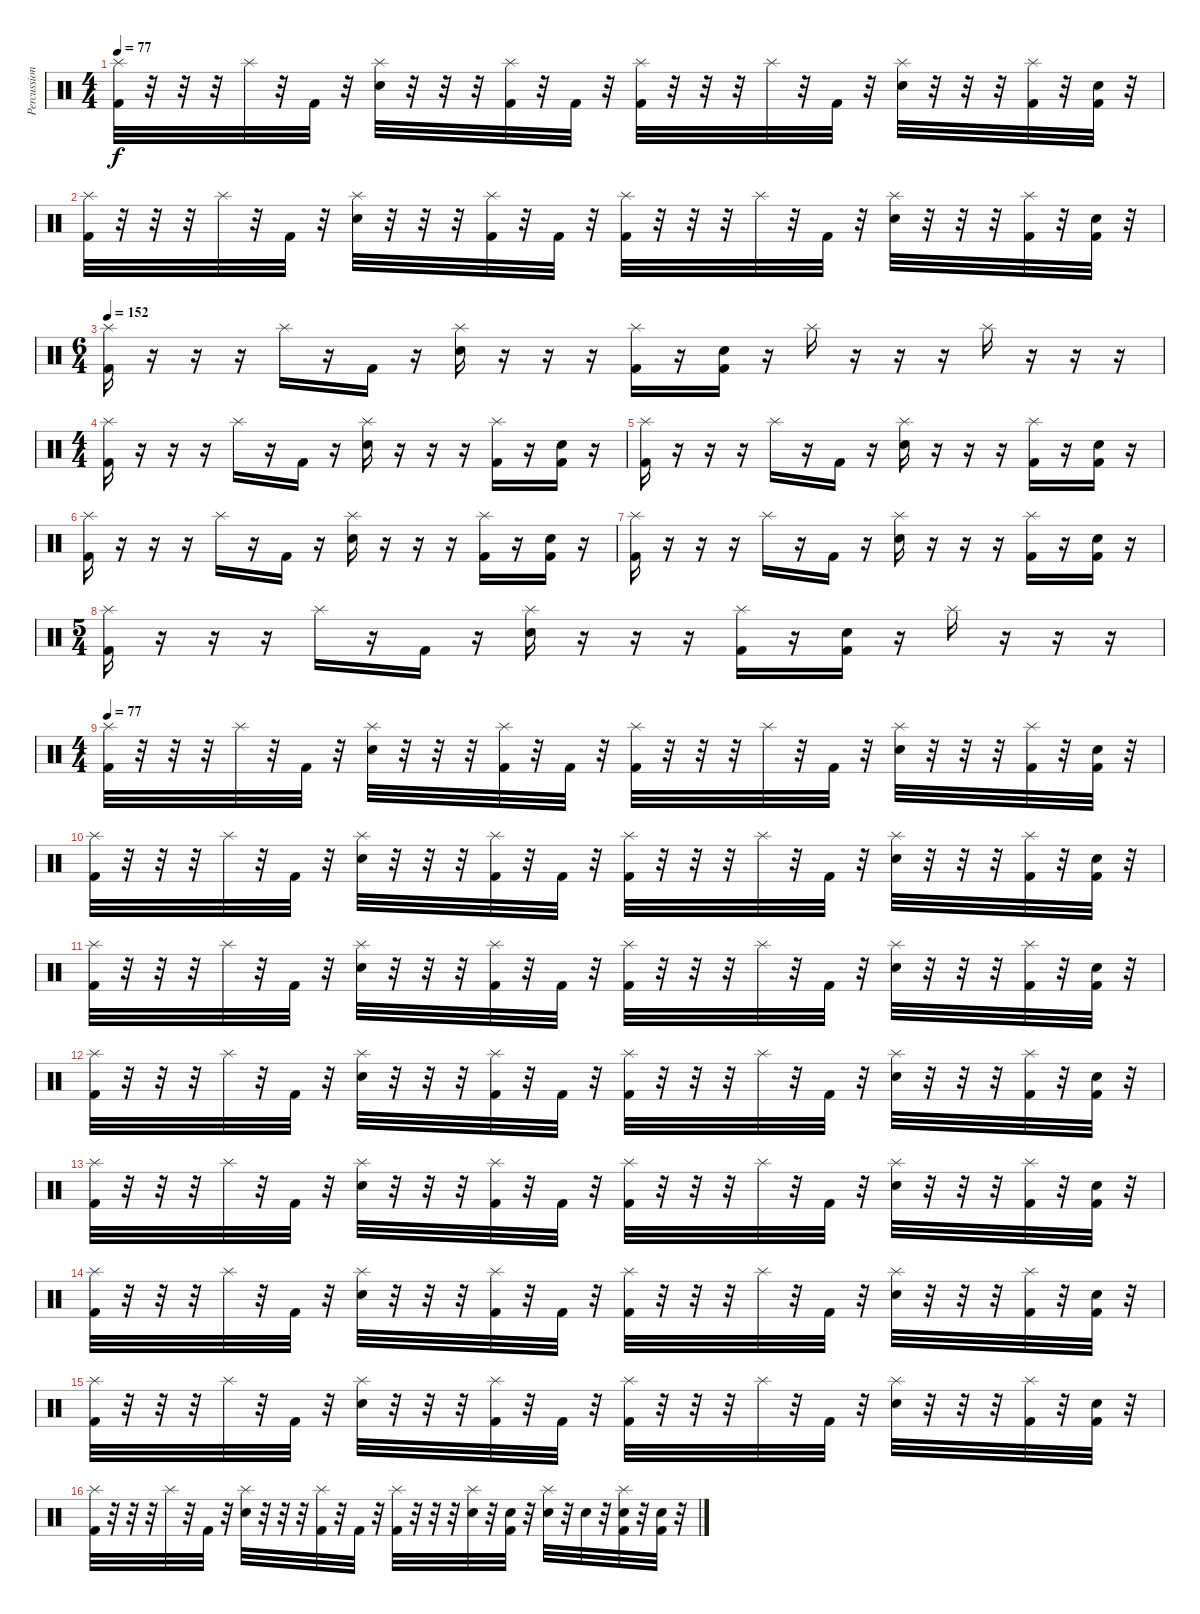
\track ("Percussion" "Percussion") {instrument percussion}
\staff {score}
\articulation defaults
\ts (4 4)
\tempo 77
\clef neutral
\ks c
("Splash (hit)" "Kick (hit) 2").32{dy f} r.32 r.32 r.32 "Splash (hit)".32 r.32 "Kick (hit) 2".32 r.32 ("Splash (hit)" "Electric Snare (hit)").32 r.32 r.32 r.32 ("Splash (hit)" "Kick (hit) 2").32 r.32 "Kick (hit) 2".32 r.32 ("Splash (hit)" "Kick (hit) 2").32 r.32 r.32 r.32 "Splash (hit)".32 r.32 "Kick (hit) 2".32 r.32 ("Splash (hit)" "Electric Snare (hit)").32 r.32 r.32 r.32 ("Splash (hit)" "Kick (hit) 2").32 r.32 ("Electric Snare (hit)" "Kick (hit) 2").32 r.32 |
("Splash (hit)" "Kick (hit) 2").32 r.32 r.32 r.32 "Splash (hit)".32 r.32 "Kick (hit) 2".32 r.32 ("Splash (hit)" "Electric Snare (hit)").32 r.32 r.32 r.32 ("Splash (hit)" "Kick (hit) 2").32 r.32 "Kick (hit) 2".32 r.32 ("Splash (hit)" "Kick (hit) 2").32 r.32 r.32 r.32 "Splash (hit)".32 r.32 "Kick (hit) 2".32 r.32 ("Splash (hit)" "Electric Snare (hit)").32 r.32 r.32 r.32 ("Splash (hit)" "Kick (hit) 2").32 r.32 ("Electric Snare (hit)" "Kick (hit) 2").32 r.32 |
\ts (6 4)
\tempo 152
("Splash (hit)" "Kick (hit) 2").16 r.16 r.16 r.16 "Splash (hit)".16 r.16 "Kick (hit) 2".16 r.16 ("Splash (hit)" "Electric Snare (hit)").16 r.16 r.16 r.16 ("Splash (hit)" "Kick (hit) 2").16 r.16 ("Electric Snare (hit)" "Kick (hit) 2").16 r.16 "Splash (hit)".16 r.16 r.16 r.16 "Splash (hit)".16 r.16 r.16 r.16 |
\ts (4 4)
("Splash (hit)" "Kick (hit) 2").16 r.16 r.16 r.16 "Splash (hit)".16 r.16 "Kick (hit) 2".16 r.16 ("Splash (hit)" "Electric Snare (hit)").16 r.16 r.16 r.16 ("Splash (hit)" "Kick (hit) 2").16 r.16 ("Electric Snare (hit)" "Kick (hit) 2").16 r.16 |
("Splash (hit)" "Kick (hit) 2").16 r.16 r.16 r.16 "Splash (hit)".16 r.16 "Kick (hit) 2".16 r.16 ("Splash (hit)" "Electric Snare (hit)").16 r.16 r.16 r.16 ("Splash (hit)" "Kick (hit) 2").16 r.16 ("Electric Snare (hit)" "Kick (hit) 2").16 r.16 |
("Splash (hit)" "Kick (hit) 2").16 r.16 r.16 r.16 "Splash (hit)".16 r.16 "Kick (hit) 2".16 r.16 ("Splash (hit)" "Electric Snare (hit)").16 r.16 r.16 r.16 ("Splash (hit)" "Kick (hit) 2").16 r.16 ("Electric Snare (hit)" "Kick (hit) 2").16 r.16 |
("Splash (hit)" "Kick (hit) 2").16 r.16 r.16 r.16 "Splash (hit)".16 r.16 "Kick (hit) 2".16 r.16 ("Splash (hit)" "Electric Snare (hit)").16 r.16 r.16 r.16 ("Splash (hit)" "Kick (hit) 2").16 r.16 ("Electric Snare (hit)" "Kick (hit) 2").16 r.16 |
\ts (5 4)
("Splash (hit)" "Kick (hit) 2").16 r.16 r.16 r.16 "Splash (hit)".16 r.16 "Kick (hit) 2".16 r.16 ("Splash (hit)" "Electric Snare (hit)").16 r.16 r.16 r.16 ("Splash (hit)" "Kick (hit) 2").16 r.16 ("Electric Snare (hit)" "Kick (hit) 2").16 r.16 "Splash (hit)".16 r.16 r.16 r.16 |
\ts (4 4)
\tempo 77
("Splash (hit)" "Kick (hit) 2").32 r.32 r.32 r.32 "Splash (hit)".32 r.32 "Kick (hit) 2".32 r.32 ("Splash (hit)" "Electric Snare (hit)").32 r.32 r.32 r.32 ("Splash (hit)" "Kick (hit) 2").32 r.32 "Kick (hit) 2".32 r.32 ("Splash (hit)" "Kick (hit) 2").32 r.32 r.32 r.32 "Splash (hit)".32 r.32 "Kick (hit) 2".32 r.32 ("Splash (hit)" "Electric Snare (hit)").32 r.32 r.32 r.32 ("Splash (hit)" "Kick (hit) 2").32 r.32 ("Electric Snare (hit)" "Kick (hit) 2").32 r.32 |
("Splash (hit)" "Kick (hit) 2").32 r.32 r.32 r.32 "Splash (hit)".32 r.32 "Kick (hit) 2".32 r.32 ("Splash (hit)" "Electric Snare (hit)").32 r.32 r.32 r.32 ("Splash (hit)" "Kick (hit) 2").32 r.32 "Kick (hit) 2".32 r.32 ("Splash (hit)" "Kick (hit) 2").32 r.32 r.32 r.32 "Splash (hit)".32 r.32 "Kick (hit) 2".32 r.32 ("Splash (hit)" "Electric Snare (hit)").32 r.32 r.32 r.32 ("Splash (hit)" "Kick (hit) 2").32 r.32 ("Electric Snare (hit)" "Kick (hit) 2").32 r.32 |
("Splash (hit)" "Kick (hit) 2").32 r.32 r.32 r.32 "Splash (hit)".32 r.32 "Kick (hit) 2".32 r.32 ("Splash (hit)" "Electric Snare (hit)").32 r.32 r.32 r.32 ("Splash (hit)" "Kick (hit) 2").32 r.32 "Kick (hit) 2".32 r.32 ("Splash (hit)" "Kick (hit) 2").32 r.32 r.32 r.32 "Splash (hit)".32 r.32 "Kick (hit) 2".32 r.32 ("Splash (hit)" "Electric Snare (hit)").32 r.32 r.32 r.32 ("Splash (hit)" "Kick (hit) 2").32 r.32 ("Electric Snare (hit)" "Kick (hit) 2").32 r.32 |
("Splash (hit)" "Kick (hit) 2").32 r.32 r.32 r.32 "Splash (hit)".32 r.32 "Kick (hit) 2".32 r.32 ("Splash (hit)" "Electric Snare (hit)").32 r.32 r.32 r.32 ("Splash (hit)" "Kick (hit) 2").32 r.32 "Kick (hit) 2".32 r.32 ("Splash (hit)" "Kick (hit) 2").32 r.32 r.32 r.32 "Splash (hit)".32 r.32 "Kick (hit) 2".32 r.32 ("Splash (hit)" "Electric Snare (hit)").32 r.32 r.32 r.32 ("Splash (hit)" "Kick (hit) 2").32 r.32 ("Electric Snare (hit)" "Kick (hit) 2").32 r.32 |
("Splash (hit)" "Kick (hit) 2").32 r.32 r.32 r.32 "Splash (hit)".32 r.32 "Kick (hit) 2".32 r.32 ("Splash (hit)" "Electric Snare (hit)").32 r.32 r.32 r.32 ("Splash (hit)" "Kick (hit) 2").32 r.32 "Kick (hit) 2".32 r.32 ("Splash (hit)" "Kick (hit) 2").32 r.32 r.32 r.32 "Splash (hit)".32 r.32 "Kick (hit) 2".32 r.32 ("Splash (hit)" "Electric Snare (hit)").32 r.32 r.32 r.32 ("Splash (hit)" "Kick (hit) 2").32 r.32 ("Electric Snare (hit)" "Kick (hit) 2").32 r.32 |
("Splash (hit)" "Kick (hit) 2").32 r.32 r.32 r.32 "Splash (hit)".32 r.32 "Kick (hit) 2".32 r.32 ("Splash (hit)" "Electric Snare (hit)").32 r.32 r.32 r.32 ("Splash (hit)" "Kick (hit) 2").32 r.32 "Kick (hit) 2".32 r.32 ("Splash (hit)" "Kick (hit) 2").32 r.32 r.32 r.32 "Splash (hit)".32 r.32 "Kick (hit) 2".32 r.32 ("Splash (hit)" "Electric Snare (hit)").32 r.32 r.32 r.32 ("Splash (hit)" "Kick (hit) 2").32 r.32 ("Electric Snare (hit)" "Kick (hit) 2").32 r.32 |
("Splash (hit)" "Kick (hit) 2").32 r.32 r.32 r.32 "Splash (hit)".32 r.32 "Kick (hit) 2".32 r.32 ("Splash (hit)" "Electric Snare (hit)").32 r.32 r.32 r.32 ("Splash (hit)" "Kick (hit) 2").32 r.32 "Kick (hit) 2".32 r.32 ("Splash (hit)" "Kick (hit) 2").32 r.32 r.32 r.32 "Splash (hit)".32 r.32 "Kick (hit) 2".32 r.32 ("Splash (hit)" "Electric Snare (hit)").32 r.32 r.32 r.32 ("Splash (hit)" "Kick (hit) 2").32 r.32 ("Electric Snare (hit)" "Kick (hit) 2").32 r.32 |
("Splash (hit)" "Kick (hit) 2").32 r.32 r.32 r.32 "Splash (hit)".32 r.32 "Kick (hit) 2".32 r.32 ("Splash (hit)" "Electric Snare (hit)").32 r.32 r.32 r.32 ("Splash (hit)" "Kick (hit) 2").32 r.32 "Kick (hit) 2".32 r.32 ("Splash (hit)" "Kick (hit) 2").32 r.32 r.32 r.32 ("Splash (hit)" "Electric Snare (hit)").32 r.32 ("Electric Snare (hit)" "Kick (hit) 2").32 r.32 ("Splash (hit)" "Electric Snare (hit)").32 r.32 "Electric Snare (hit)".32 r.32 ("Splash (hit)" "Electric Snare (hit)" "Kick (hit) 2").32 r.32 ("Electric Snare (hit)" "Kick (hit) 2").32 r.32
